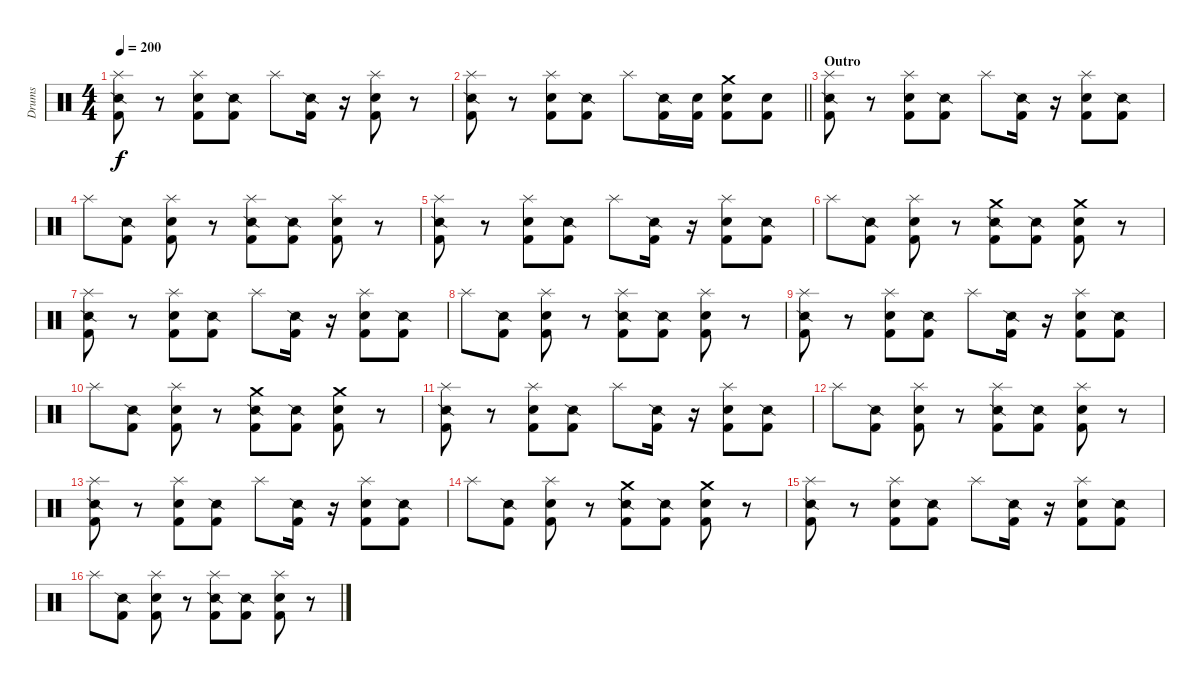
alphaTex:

\track ("Drums" "Drums") {instrument percussion}
\staff {score}
\articulation defaults
\ts (4 4)
\tempo 200
\clef neutral
\ks c
("Splash (hit)" "Snare (side stick) 2" "Kick (hit) 2").8{dy f} r.8 ("Splash (hit)" "Snare (hit) 2" "Kick (hit) 2").8 ("Snare (side stick) 2" "Kick (hit) 2").8 "Splash (hit)".8 ("Snare (side stick) 2" "Kick (hit) 2").16 r.16 ("Splash (hit)" "Snare (hit) 2" "Kick (hit) 2").8 r.8 |
\barLineRight lightlight
("Splash (hit)" "Snare (side stick) 2" "Kick (hit) 2").8 r.8 ("Splash (hit)" "Snare (hit) 2" "Kick (hit) 2").8 ("Snare (side stick) 2" "Kick (hit) 2").8 "Splash (hit)".8 ("Snare (side stick) 2" "Kick (hit) 2").16 ("Snare (hit) 2" "Kick (hit) 2").16 ("Crash medium (hit)" "Snare (hit) 2" "Kick (hit) 2").8 ("Snare (hit) 2" "Kick (hit) 2").8 |
\section ("" "Outro")
("Splash (hit)" "Snare (side stick) 2" "Kick (hit) 2").8 r.8 ("Splash (hit)" "Snare (hit) 2" "Kick (hit) 2").8 ("Snare (side stick) 2" "Kick (hit) 2").8 "Splash (hit)".8 ("Snare (side stick) 2" "Kick (hit) 2").16 r.16 ("Splash (hit)" "Snare (hit) 2" "Kick (hit) 2").8 ("Snare (side stick) 2" "Kick (hit) 2").8 |
"Splash (hit)".8 ("Snare (side stick) 2" "Kick (hit) 2").8 ("Splash (hit)" "Snare (hit) 2" "Kick (hit) 2").8 r.8 ("Splash (hit)" "Snare (side stick) 2" "Kick (hit) 2").8 ("Snare (side stick) 2" "Kick (hit) 2").8 ("Splash (hit)" "Snare (hit) 2" "Kick (hit) 2").8 r.8 |
("Splash (hit)" "Snare (side stick) 2" "Kick (hit) 2").8 r.8 ("Splash (hit)" "Snare (hit) 2" "Kick (hit) 2").8 ("Snare (side stick) 2" "Kick (hit) 2").8 "Splash (hit)".8 ("Snare (side stick) 2" "Kick (hit) 2").16 r.16 ("Splash (hit)" "Snare (hit) 2" "Kick (hit) 2").8 ("Snare (side stick) 2" "Kick (hit) 2").8 |
"Splash (hit)".8 ("Snare (side stick) 2" "Kick (hit) 2").8 ("Splash (hit)" "Snare (hit) 2" "Kick (hit) 2").8 r.8 ("Crash medium (hit)" "Snare (side stick) 2" "Kick (hit) 2").8 ("Snare (side stick) 2" "Kick (hit) 2").8 ("Crash medium (hit)" "Snare (hit) 2" "Kick (hit) 2").8 r.8 |
("Splash (hit)" "Snare (side stick) 2" "Kick (hit) 2").8 r.8 ("Splash (hit)" "Snare (hit) 2" "Kick (hit) 2").8 ("Snare (side stick) 2" "Kick (hit) 2").8 "Splash (hit)".8 ("Snare (side stick) 2" "Kick (hit) 2").16 r.16 ("Splash (hit)" "Snare (hit) 2" "Kick (hit) 2").8 ("Snare (side stick) 2" "Kick (hit) 2").8 |
"Splash (hit)".8 ("Snare (side stick) 2" "Kick (hit) 2").8 ("Splash (hit)" "Snare (hit) 2" "Kick (hit) 2").8 r.8 ("Splash (hit)" "Snare (side stick) 2" "Kick (hit) 2").8 ("Snare (side stick) 2" "Kick (hit) 2").8 ("Splash (hit)" "Snare (hit) 2" "Kick (hit) 2").8 r.8 |
("Splash (hit)" "Snare (side stick) 2" "Kick (hit) 2").8 r.8 ("Splash (hit)" "Snare (hit) 2" "Kick (hit) 2").8 ("Snare (side stick) 2" "Kick (hit) 2").8 "Splash (hit)".8 ("Snare (side stick) 2" "Kick (hit) 2").16 r.16 ("Splash (hit)" "Snare (hit) 2" "Kick (hit) 2").8 ("Snare (side stick) 2" "Kick (hit) 2").8 |
"Splash (hit)".8 ("Snare (side stick) 2" "Kick (hit) 2").8 ("Splash (hit)" "Snare (hit) 2" "Kick (hit) 2").8 r.8 ("Crash medium (hit)" "Snare (side stick) 2" "Kick (hit) 2").8 ("Snare (side stick) 2" "Kick (hit) 2").8 ("Crash medium (hit)" "Snare (hit) 2" "Kick (hit) 2").8 r.8 |
("Splash (hit)" "Snare (side stick) 2" "Kick (hit) 2").8 r.8 ("Splash (hit)" "Snare (hit) 2" "Kick (hit) 2").8 ("Snare (side stick) 2" "Kick (hit) 2").8 "Splash (hit)".8 ("Snare (side stick) 2" "Kick (hit) 2").16 r.16 ("Splash (hit)" "Snare (hit) 2" "Kick (hit) 2").8 ("Snare (side stick) 2" "Kick (hit) 2").8 |
"Splash (hit)".8 ("Snare (side stick) 2" "Kick (hit) 2").8 ("Splash (hit)" "Snare (hit) 2" "Kick (hit) 2").8 r.8 ("Splash (hit)" "Snare (side stick) 2" "Kick (hit) 2").8 ("Snare (side stick) 2" "Kick (hit) 2").8 ("Splash (hit)" "Snare (hit) 2" "Kick (hit) 2").8 r.8 |
("Splash (hit)" "Snare (side stick) 2" "Kick (hit) 2").8 r.8 ("Splash (hit)" "Snare (hit) 2" "Kick (hit) 2").8 ("Snare (side stick) 2" "Kick (hit) 2").8 "Splash (hit)".8 ("Snare (side stick) 2" "Kick (hit) 2").16 r.16 ("Splash (hit)" "Snare (hit) 2" "Kick (hit) 2").8 ("Snare (side stick) 2" "Kick (hit) 2").8 |
"Splash (hit)".8 ("Snare (side stick) 2" "Kick (hit) 2").8 ("Splash (hit)" "Snare (hit) 2" "Kick (hit) 2").8 r.8 ("Crash medium (hit)" "Snare (side stick) 2" "Kick (hit) 2").8 ("Snare (side stick) 2" "Kick (hit) 2").8 ("Crash medium (hit)" "Snare (hit) 2" "Kick (hit) 2").8 r.8 |
("Splash (hit)" "Snare (side stick) 2" "Kick (hit) 2").8 r.8 ("Splash (hit)" "Snare (hit) 2" "Kick (hit) 2").8 ("Snare (side stick) 2" "Kick (hit) 2").8 "Splash (hit)".8 ("Snare (side stick) 2" "Kick (hit) 2").16 r.16 ("Splash (hit)" "Snare (hit) 2" "Kick (hit) 2").8 ("Snare (side stick) 2" "Kick (hit) 2").8 |
"Splash (hit)".8 ("Snare (side stick) 2" "Kick (hit) 2").8 ("Splash (hit)" "Snare (hit) 2" "Kick (hit) 2").8 r.8 ("Splash (hit)" "Snare (side stick) 2" "Kick (hit) 2").8 ("Snare (side stick) 2" "Kick (hit) 2").8 ("Splash (hit)" "Snare (hit) 2" "Kick (hit) 2").8 r.8
